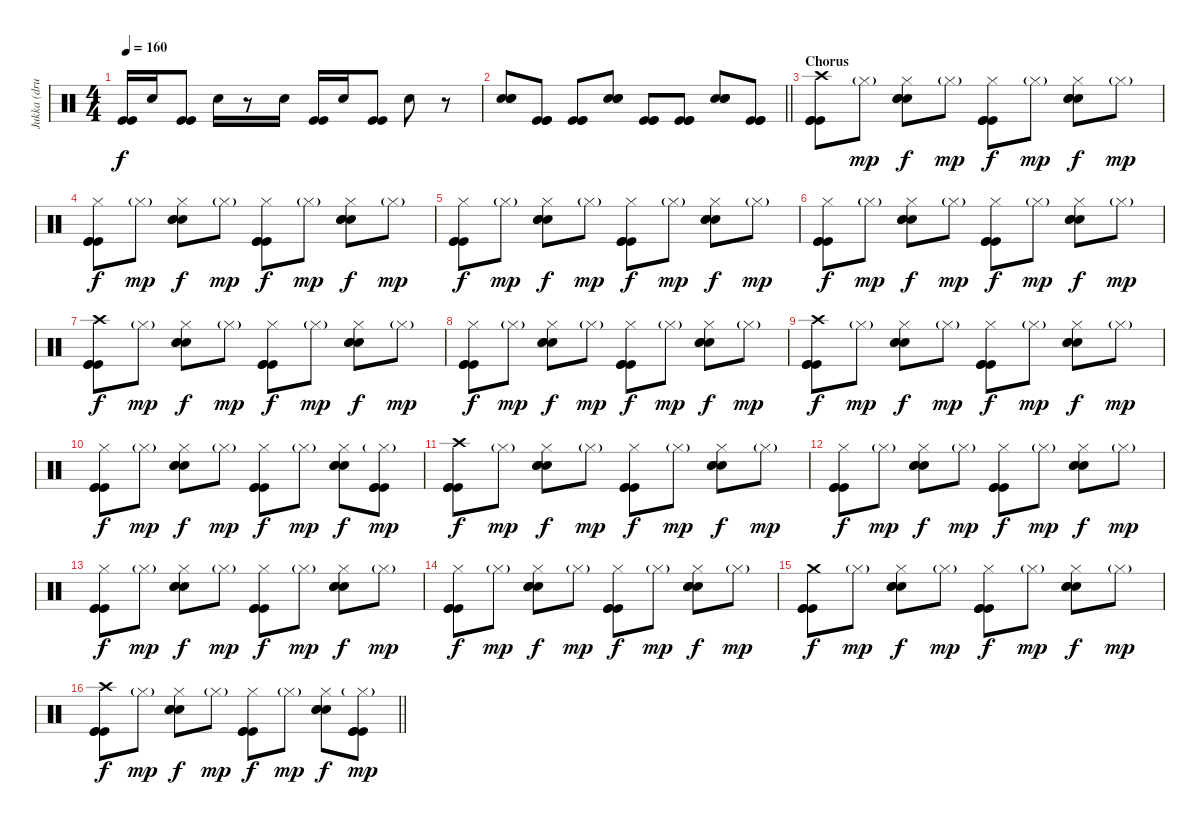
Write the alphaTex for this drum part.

\track ("Jukka (drums)" "Jukka (dru") {instrument percussion}
\staff {score}
\articulation defaults
\ts (4 4)
\tempo 160
\clef neutral
\ks c
("Kick (hit)" "Kick (hit)").16{dy f} "Electric Snare (hit)".16 ("Kick (hit)" "Kick (hit)").8 "Electric Snare (hit)".16 r.8 "Electric Snare (hit)".16 ("Kick (hit)" "Kick (hit)").16 "Electric Snare (hit)".16 ("Kick (hit)" "Kick (hit)").8 "Electric Snare (hit)".8 r.8 |
\barLineRight lightlight
("Electric Snare (hit)" "Electric Snare (hit)" "Electric Snare (hit)").8{volume 14} ("Kick (hit)" "Kick (hit)" "Kick (hit)").8 ("Kick (hit)" "Kick (hit)" "Kick (hit)").8 ("Electric Snare (hit)" "Electric Snare (hit)" "Electric Snare (hit)").8 ("Kick (hit)" "Kick (hit)" "Kick (hit)").8 ("Kick (hit)" "Kick (hit)" "Kick (hit)").8 ("Electric Snare (hit)" "Electric Snare (hit)" "Electric Snare (hit)").8 ("Kick (hit)" "Kick (hit)" "Kick (hit)").8 |
\section ("" "Chorus")
("Crash high (hit)" "Kick (hit)" "Kick (hit)" "Kick (hit)").8 "Hi-Hat (closed)"{g}.8{dy mp} ("Hi-Hat (closed)" "Electric Snare (hit)" "Electric Snare (hit)" "Electric Snare (hit)").8{dy f} "Hi-Hat (closed)"{g}.8{dy mp} ("Hi-Hat (closed)" "Kick (hit)" "Kick (hit)" "Kick (hit)").8{dy f} "Hi-Hat (closed)"{g}.8{dy mp} ("Hi-Hat (closed)" "Electric Snare (hit)" "Electric Snare (hit)" "Electric Snare (hit)").8{dy f} "Hi-Hat (closed)"{g}.8{dy mp} |
("Hi-Hat (closed)" "Kick (hit)" "Kick (hit)" "Kick (hit)").8{dy f} "Hi-Hat (closed)"{g}.8{dy mp} ("Hi-Hat (closed)" "Electric Snare (hit)" "Electric Snare (hit)" "Electric Snare (hit)").8{dy f} "Hi-Hat (closed)"{g}.8{dy mp} ("Hi-Hat (closed)" "Kick (hit)" "Kick (hit)" "Kick (hit)").8{dy f} "Hi-Hat (closed)"{g}.8{dy mp} ("Hi-Hat (closed)" "Electric Snare (hit)" "Electric Snare (hit)" "Electric Snare (hit)").8{dy f} "Hi-Hat (closed)"{g}.8{dy mp} |
("Hi-Hat (closed)" "Kick (hit)" "Kick (hit)" "Kick (hit)").8{dy f} "Hi-Hat (closed)"{g}.8{dy mp} ("Hi-Hat (closed)" "Electric Snare (hit)" "Electric Snare (hit)" "Electric Snare (hit)").8{dy f} "Hi-Hat (closed)"{g}.8{dy mp} ("Hi-Hat (closed)" "Kick (hit)" "Kick (hit)" "Kick (hit)").8{dy f} "Hi-Hat (closed)"{g}.8{dy mp} ("Hi-Hat (closed)" "Electric Snare (hit)" "Electric Snare (hit)" "Electric Snare (hit)").8{dy f} "Hi-Hat (closed)"{g}.8{dy mp} |
("Hi-Hat (closed)" "Kick (hit)" "Kick (hit)" "Kick (hit)").8{dy f} "Hi-Hat (closed)"{g}.8{dy mp} ("Hi-Hat (closed)" "Electric Snare (hit)" "Electric Snare (hit)" "Electric Snare (hit)").8{dy f} "Hi-Hat (closed)"{g}.8{dy mp} ("Hi-Hat (closed)" "Kick (hit)" "Kick (hit)" "Kick (hit)").8{dy f} "Hi-Hat (closed)"{g}.8{dy mp} ("Hi-Hat (closed)" "Electric Snare (hit)" "Electric Snare (hit)" "Electric Snare (hit)").8{dy f} "Hi-Hat (closed)"{g}.8{dy mp} |
("Crash high (hit)" "Kick (hit)" "Kick (hit)" "Kick (hit)").8{dy f} "Hi-Hat (closed)"{g}.8{dy mp} ("Hi-Hat (closed)" "Electric Snare (hit)" "Electric Snare (hit)" "Electric Snare (hit)").8{dy f} "Hi-Hat (closed)"{g}.8{dy mp} ("Hi-Hat (closed)" "Kick (hit)" "Kick (hit)" "Kick (hit)").8{dy f} "Hi-Hat (closed)"{g}.8{dy mp} ("Hi-Hat (closed)" "Electric Snare (hit)" "Electric Snare (hit)" "Electric Snare (hit)").8{dy f} "Hi-Hat (closed)"{g}.8{dy mp} |
("Hi-Hat (closed)" "Kick (hit)" "Kick (hit)" "Kick (hit)").8{dy f} "Hi-Hat (closed)"{g}.8{dy mp} ("Hi-Hat (closed)" "Electric Snare (hit)" "Electric Snare (hit)" "Electric Snare (hit)").8{dy f} "Hi-Hat (closed)"{g}.8{dy mp} ("Hi-Hat (closed)" "Kick (hit)" "Kick (hit)" "Kick (hit)").8{dy f} "Hi-Hat (closed)"{g}.8{dy mp} ("Hi-Hat (closed)" "Electric Snare (hit)" "Electric Snare (hit)" "Electric Snare (hit)").8{dy f} "Hi-Hat (closed)"{g}.8{dy mp} |
("Crash high (hit)" "Kick (hit)" "Kick (hit)" "Kick (hit)").8{dy f} "Hi-Hat (closed)"{g}.8{dy mp} ("Hi-Hat (closed)" "Electric Snare (hit)" "Electric Snare (hit)" "Electric Snare (hit)").8{dy f} "Hi-Hat (closed)"{g}.8{dy mp} ("Hi-Hat (closed)" "Kick (hit)" "Kick (hit)" "Kick (hit)").8{dy f} "Hi-Hat (closed)"{g}.8{dy mp} ("Hi-Hat (closed)" "Electric Snare (hit)" "Electric Snare (hit)" "Electric Snare (hit)").8{dy f} "Hi-Hat (closed)"{g}.8{dy mp} |
("Hi-Hat (closed)" "Kick (hit)" "Kick (hit)" "Kick (hit)").8{dy f} "Hi-Hat (closed)"{g}.8{dy mp} ("Hi-Hat (closed)" "Electric Snare (hit)" "Electric Snare (hit)" "Electric Snare (hit)").8{dy f} "Hi-Hat (closed)"{g}.8{dy mp} ("Hi-Hat (closed)" "Kick (hit)" "Kick (hit)" "Kick (hit)").8{dy f} "Hi-Hat (closed)"{g}.8{dy mp} ("Hi-Hat (closed)" "Electric Snare (hit)" "Electric Snare (hit)" "Electric Snare (hit)").8{dy f} ("Hi-Hat (closed)"{g} "Kick (hit)" "Kick (hit)" "Kick (hit)").8{dy mp} |
("Crash high (hit)" "Kick (hit)" "Kick (hit)" "Kick (hit)").8{dy f} "Hi-Hat (closed)"{g}.8{dy mp} ("Hi-Hat (closed)" "Electric Snare (hit)" "Electric Snare (hit)" "Electric Snare (hit)").8{dy f} "Hi-Hat (closed)"{g}.8{dy mp} ("Hi-Hat (closed)" "Kick (hit)" "Kick (hit)" "Kick (hit)").8{dy f} "Hi-Hat (closed)"{g}.8{dy mp} ("Hi-Hat (closed)" "Electric Snare (hit)" "Electric Snare (hit)" "Electric Snare (hit)").8{dy f} "Hi-Hat (closed)"{g}.8{dy mp} |
("Hi-Hat (closed)" "Kick (hit)" "Kick (hit)" "Kick (hit)").8{dy f} "Hi-Hat (closed)"{g}.8{dy mp} ("Hi-Hat (closed)" "Electric Snare (hit)" "Electric Snare (hit)" "Electric Snare (hit)").8{dy f} "Hi-Hat (closed)"{g}.8{dy mp} ("Hi-Hat (closed)" "Kick (hit)" "Kick (hit)" "Kick (hit)").8{dy f} "Hi-Hat (closed)"{g}.8{dy mp} ("Hi-Hat (closed)" "Electric Snare (hit)" "Electric Snare (hit)" "Electric Snare (hit)").8{dy f} "Hi-Hat (closed)"{g}.8{dy mp} |
("Hi-Hat (closed)" "Kick (hit)" "Kick (hit)" "Kick (hit)").8{dy f} "Hi-Hat (closed)"{g}.8{dy mp} ("Hi-Hat (closed)" "Electric Snare (hit)" "Electric Snare (hit)" "Electric Snare (hit)").8{dy f} "Hi-Hat (closed)"{g}.8{dy mp} ("Hi-Hat (closed)" "Kick (hit)" "Kick (hit)" "Kick (hit)").8{dy f} "Hi-Hat (closed)"{g}.8{dy mp} ("Hi-Hat (closed)" "Electric Snare (hit)" "Electric Snare (hit)" "Electric Snare (hit)").8{dy f} "Hi-Hat (closed)"{g}.8{dy mp} |
("Hi-Hat (closed)" "Kick (hit)" "Kick (hit)" "Kick (hit)").8{dy f} "Hi-Hat (closed)"{g}.8{dy mp} ("Hi-Hat (closed)" "Electric Snare (hit)" "Electric Snare (hit)" "Electric Snare (hit)").8{dy f} "Hi-Hat (closed)"{g}.8{dy mp} ("Hi-Hat (closed)" "Kick (hit)" "Kick (hit)" "Kick (hit)").8{dy f} "Hi-Hat (closed)"{g}.8{dy mp} ("Hi-Hat (closed)" "Electric Snare (hit)" "Electric Snare (hit)" "Electric Snare (hit)").8{dy f} "Hi-Hat (closed)"{g}.8{dy mp} |
("Crash medium (hit)" "Kick (hit)" "Kick (hit)" "Kick (hit)").8{dy f} "Hi-Hat (closed)"{g}.8{dy mp} ("Hi-Hat (closed)" "Electric Snare (hit)" "Electric Snare (hit)" "Electric Snare (hit)").8{dy f} "Hi-Hat (closed)"{g}.8{dy mp} ("Hi-Hat (closed)" "Kick (hit)" "Kick (hit)" "Kick (hit)").8{dy f} "Hi-Hat (closed)"{g}.8{dy mp} ("Hi-Hat (closed)" "Electric Snare (hit)" "Electric Snare (hit)" "Electric Snare (hit)").8{dy f} "Hi-Hat (closed)"{g}.8{dy mp} |
\barLineRight lightlight
("Crash high (hit)" "Kick (hit)" "Kick (hit)" "Kick (hit)").8{dy f} "Hi-Hat (closed)"{g}.8{dy mp} ("Hi-Hat (closed)" "Electric Snare (hit)" "Electric Snare (hit)" "Electric Snare (hit)").8{dy f} "Hi-Hat (closed)"{g}.8{dy mp} ("Hi-Hat (closed)" "Kick (hit)" "Kick (hit)" "Kick (hit)").8{dy f} "Hi-Hat (closed)"{g}.8{dy mp} ("Hi-Hat (closed)" "Electric Snare (hit)" "Electric Snare (hit)" "Electric Snare (hit)").8{dy f} ("Hi-Hat (closed)"{g} "Kick (hit)" "Kick (hit)" "Kick (hit)").8{dy mp}
